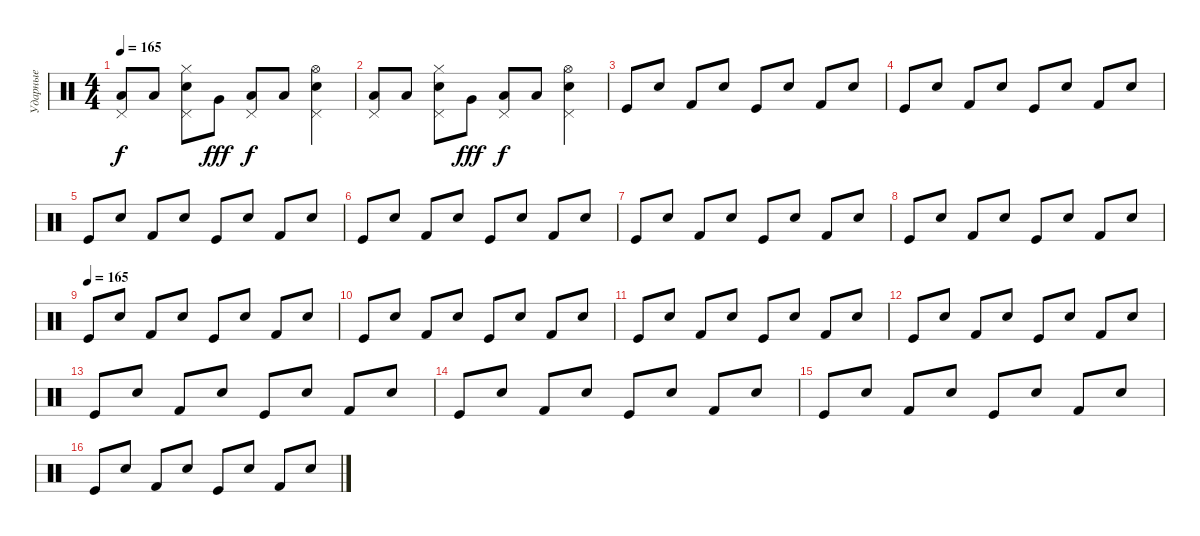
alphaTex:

\track ("Ударные" "Ударные") {instrument percussion}
\staff {score}
\articulation defaults
\ts (4 4)
\tempo 165
\clef neutral
\ks c
("Pedal Hi-Hat (hit)" "Low Floor Tom (hit)").8{dy f} "Low Floor Tom (hit)".8 ("Pedal Hi-Hat (hit)" "Electric Snare (hit)" "Hi-Hat (closed)").8 "Very Low Tom (hit)".8{dy fff} ("Pedal Hi-Hat (hit)" "Low Floor Tom (hit)").8{dy f} "Low Floor Tom (hit)".8 ("Electric Snare (hit)" "Pedal Hi-Hat (hit)" "Hi-Hat (open)").4 |
("Pedal Hi-Hat (hit)" "Low Floor Tom (hit)").8 "Low Floor Tom (hit)".8 ("Pedal Hi-Hat (hit)" "Electric Snare (hit)" "Hi-Hat (closed)").8 "Very Low Tom (hit)".8{dy fff} ("Pedal Hi-Hat (hit)" "Low Floor Tom (hit)").8{dy f} "Low Floor Tom (hit)".8 ("Pedal Hi-Hat (hit)" "Electric Snare (hit)" "Hi-Hat (open)").4 |
"Kick (hit)".8 "Snare (hit) 2".8 "Kick (hit) 2".8 "Snare (hit) 2".8 "Kick (hit)".8 "Snare (hit) 2".8 "Kick (hit) 2".8 "Snare (hit) 2".8 |
"Kick (hit)".8 "Snare (hit) 2".8 "Kick (hit) 2".8 "Snare (hit) 2".8 "Kick (hit)".8 "Snare (hit) 2".8 "Kick (hit) 2".8 "Snare (hit) 2".8 |
"Kick (hit)".8 "Snare (hit) 2".8 "Kick (hit) 2".8 "Snare (hit) 2".8 "Kick (hit)".8 "Snare (hit) 2".8 "Kick (hit) 2".8 "Snare (hit) 2".8 |
"Kick (hit)".8 "Snare (hit) 2".8 "Kick (hit) 2".8 "Snare (hit) 2".8 "Kick (hit)".8 "Snare (hit) 2".8 "Kick (hit) 2".8 "Snare (hit) 2".8 |
"Kick (hit)".8 "Snare (hit) 2".8 "Kick (hit) 2".8 "Snare (hit) 2".8 "Kick (hit)".8 "Snare (hit) 2".8 "Kick (hit) 2".8 "Snare (hit) 2".8 |
"Kick (hit)".8 "Snare (hit) 2".8 "Kick (hit) 2".8 "Snare (hit) 2".8 "Kick (hit)".8 "Snare (hit) 2".8 "Kick (hit) 2".8 "Snare (hit) 2".8 |
\tempo (165)
"Kick (hit)".8 "Snare (hit) 2".8 "Kick (hit) 2".8 "Snare (hit) 2".8 "Kick (hit)".8 "Snare (hit) 2".8 "Kick (hit) 2".8 "Snare (hit) 2".8 |
"Kick (hit)".8 "Snare (hit) 2".8 "Kick (hit) 2".8 "Snare (hit) 2".8 "Kick (hit)".8 "Snare (hit) 2".8 "Kick (hit) 2".8 "Snare (hit) 2".8 |
"Kick (hit)".8 "Snare (hit) 2".8 "Kick (hit) 2".8 "Snare (hit) 2".8 "Kick (hit)".8 "Snare (hit) 2".8 "Kick (hit) 2".8 "Snare (hit) 2".8 |
"Kick (hit)".8 "Snare (hit) 2".8 "Kick (hit) 2".8 "Snare (hit) 2".8 "Kick (hit)".8 "Snare (hit) 2".8 "Kick (hit) 2".8 "Snare (hit) 2".8 |
"Kick (hit)".8 "Snare (hit) 2".8 "Kick (hit) 2".8 "Snare (hit) 2".8 "Kick (hit)".8 "Snare (hit) 2".8 "Kick (hit) 2".8 "Snare (hit) 2".8 |
"Kick (hit)".8 "Snare (hit) 2".8 "Kick (hit) 2".8 "Snare (hit) 2".8 "Kick (hit)".8 "Snare (hit) 2".8 "Kick (hit) 2".8 "Snare (hit) 2".8 |
"Kick (hit)".8 "Snare (hit) 2".8 "Kick (hit) 2".8 "Snare (hit) 2".8 "Kick (hit)".8 "Snare (hit) 2".8 "Kick (hit) 2".8 "Snare (hit) 2".8 |
"Kick (hit)".8 "Snare (hit) 2".8 "Kick (hit) 2".8 "Snare (hit) 2".8 "Kick (hit)".8 "Snare (hit) 2".8 "Kick (hit) 2".8 "Snare (hit) 2".8
